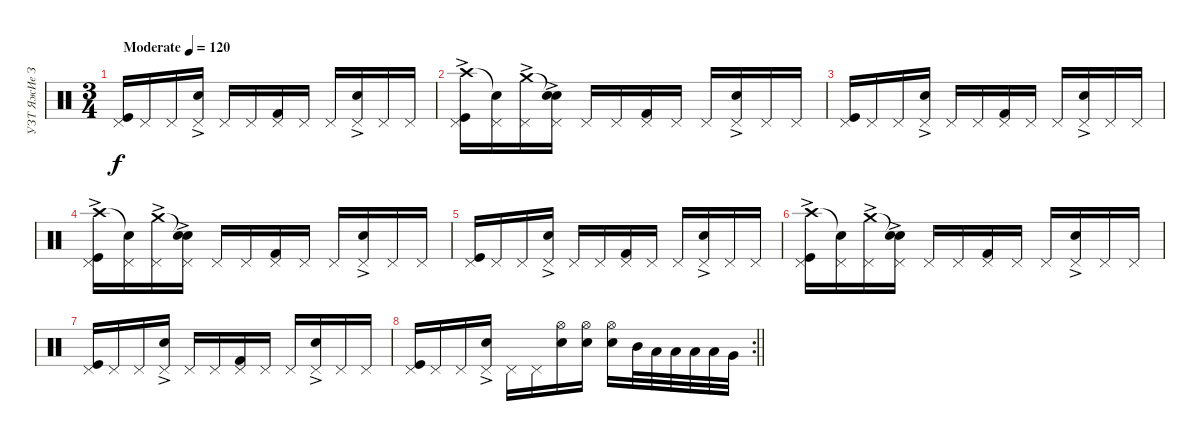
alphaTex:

\track ("УЗТ ЯжИе Зн" "УЗТ ЯжИе З") {instrument percussion}
\staff {score}
\articulation defaults
\ts (3 4)
\tempo (120 "Moderate")
\clef neutral
\ks c
("Pedal Hi-Hat (hit)" "Kick (hit)").16{dy f} "Pedal Hi-Hat (hit)".16 "Pedal Hi-Hat (hit)".16 ("Pedal Hi-Hat (hit)" "Hand Clap (hit)"{ac}).16 "Pedal Hi-Hat (hit)".16 "Pedal Hi-Hat (hit)".16 ("Pedal Hi-Hat (hit)" "Kick (hit) 2").16 "Pedal Hi-Hat (hit)".16 "Pedal Hi-Hat (hit)".16 ("Pedal Hi-Hat (hit)" "Hand Clap (hit)"{ac}).16 "Pedal Hi-Hat (hit)".16 "Pedal Hi-Hat (hit)".16 |
("Pedal Hi-Hat (hit)" "Crash high (hit)"{ac} "Kick (hit)").16 ("Pedal Hi-Hat (hit)" "Snare (hit)"{t}).16 ("Pedal Hi-Hat (hit)" "Crash medium (hit)"{ac}).16 ("Pedal Hi-Hat (hit)" "Snare (hit)"{t} "Hand Clap (hit)"{ac}).16 "Pedal Hi-Hat (hit)".16 "Pedal Hi-Hat (hit)".16 ("Pedal Hi-Hat (hit)" "Kick (hit) 2").16 "Pedal Hi-Hat (hit)".16 "Pedal Hi-Hat (hit)".16 ("Pedal Hi-Hat (hit)" "Hand Clap (hit)"{ac}).16 "Pedal Hi-Hat (hit)".16 "Pedal Hi-Hat (hit)".16 |
("Pedal Hi-Hat (hit)" "Kick (hit)").16 "Pedal Hi-Hat (hit)".16 "Pedal Hi-Hat (hit)".16 ("Pedal Hi-Hat (hit)" "Hand Clap (hit)"{ac}).16 "Pedal Hi-Hat (hit)".16 "Pedal Hi-Hat (hit)".16 ("Pedal Hi-Hat (hit)" "Kick (hit) 2").16 "Pedal Hi-Hat (hit)".16 "Pedal Hi-Hat (hit)".16 ("Pedal Hi-Hat (hit)" "Hand Clap (hit)"{ac}).16 "Pedal Hi-Hat (hit)".16 "Pedal Hi-Hat (hit)".16 |
("Pedal Hi-Hat (hit)" "Crash high (hit)"{ac} "Kick (hit)").16 ("Pedal Hi-Hat (hit)" "Snare (hit)"{t}).16 ("Pedal Hi-Hat (hit)" "Crash medium (hit)"{ac}).16 ("Pedal Hi-Hat (hit)" "Snare (hit)"{t} "Hand Clap (hit)"{ac}).16 "Pedal Hi-Hat (hit)".16 "Pedal Hi-Hat (hit)".16 ("Pedal Hi-Hat (hit)" "Kick (hit) 2").16 "Pedal Hi-Hat (hit)".16 "Pedal Hi-Hat (hit)".16 ("Pedal Hi-Hat (hit)" "Hand Clap (hit)"{ac}).16 "Pedal Hi-Hat (hit)".16 "Pedal Hi-Hat (hit)".16 |
("Pedal Hi-Hat (hit)" "Kick (hit)").16 "Pedal Hi-Hat (hit)".16 "Pedal Hi-Hat (hit)".16 ("Pedal Hi-Hat (hit)" "Hand Clap (hit)"{ac}).16 "Pedal Hi-Hat (hit)".16 "Pedal Hi-Hat (hit)".16 ("Pedal Hi-Hat (hit)" "Kick (hit) 2").16 "Pedal Hi-Hat (hit)".16 "Pedal Hi-Hat (hit)".16 ("Pedal Hi-Hat (hit)" "Hand Clap (hit)"{ac}).16 "Pedal Hi-Hat (hit)".16 "Pedal Hi-Hat (hit)".16 |
("Pedal Hi-Hat (hit)" "Crash high (hit)"{ac} "Kick (hit)").16 ("Pedal Hi-Hat (hit)" "Snare (hit)"{t}).16 ("Pedal Hi-Hat (hit)" "Crash medium (hit)"{ac}).16 ("Pedal Hi-Hat (hit)" "Snare (hit)"{t} "Hand Clap (hit)"{ac}).16 "Pedal Hi-Hat (hit)".16 "Pedal Hi-Hat (hit)".16 ("Pedal Hi-Hat (hit)" "Kick (hit) 2").16 "Pedal Hi-Hat (hit)".16 "Pedal Hi-Hat (hit)".16 ("Pedal Hi-Hat (hit)" "Hand Clap (hit)"{ac}).16 "Pedal Hi-Hat (hit)".16 "Pedal Hi-Hat (hit)".16 |
("Pedal Hi-Hat (hit)" "Kick (hit)").16 "Pedal Hi-Hat (hit)".16 "Pedal Hi-Hat (hit)".16 ("Pedal Hi-Hat (hit)" "Hand Clap (hit)"{ac}).16 "Pedal Hi-Hat (hit)".16 "Pedal Hi-Hat (hit)".16 ("Pedal Hi-Hat (hit)" "Kick (hit) 2").16 "Pedal Hi-Hat (hit)".16 "Pedal Hi-Hat (hit)".16 ("Pedal Hi-Hat (hit)" "Hand Clap (hit)"{ac}).16 "Pedal Hi-Hat (hit)".16 "Pedal Hi-Hat (hit)".16 |
\rc 2
\barLineRight lightlight
("Pedal Hi-Hat (hit)" "Kick (hit)").16 "Pedal Hi-Hat (hit)".16 "Pedal Hi-Hat (hit)".16 ("Pedal Hi-Hat (hit)" "Hand Clap (hit)"{ac}).16 "Pedal Hi-Hat (hit)".16 "Pedal Hi-Hat (hit)".16 ("Hi-Hat (open)" "Snare (hit) 2").16 ("Hi-Hat (open)" "Snare (hit) 2").16 ("Hi-Hat (open)" "Snare (hit) 2").16 "Mid Tom (hit)".32 "Low Tom (hit)".32 "Low Tom (hit)".32 "Low Tom (hit)".32 "Low Tom (hit)".32 "Very Low Tom (hit)".32
